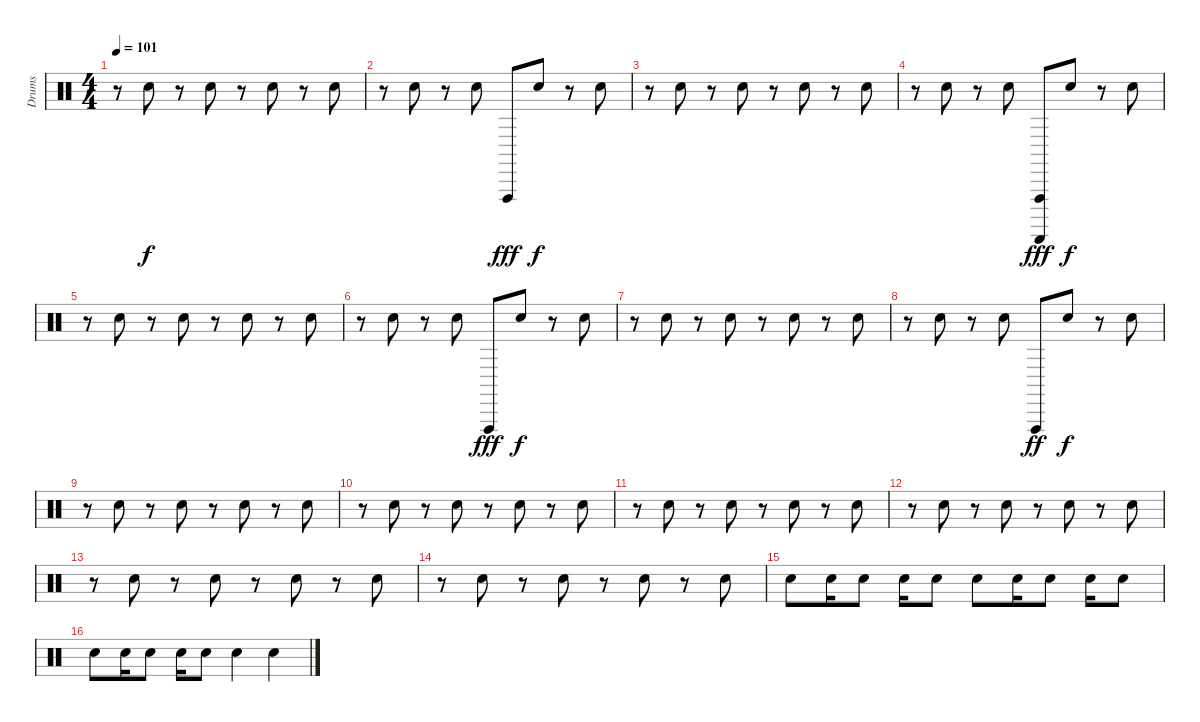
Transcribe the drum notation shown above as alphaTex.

\track ("Drums" "Drums") {instrument percussion}
\staff {score}
\articulation defaults
\ts (4 4)
\tempo 101
\clef neutral
\ks c
r.8{dy f} "Electric Snare (hit)".8 r.8 "Electric Snare (hit)".8 r.8 "Electric Snare (hit)".8 r.8 "Electric Snare (hit)".8 |
r.8 "Electric Snare (hit)".8 r.8 "Electric Snare (hit)".8 "Vibraslap (hit)".8{dy fff} "Electric Snare (hit)".8{dy f} r.8 "Electric Snare (hit)".8 |
r.8 "Electric Snare (hit)".8 r.8 "Electric Snare (hit)".8 r.8 "Electric Snare (hit)".8 r.8 "Electric Snare (hit)".8 |
r.8 "Electric Snare (hit)".8 r.8 "Electric Snare (hit)".8 ("Guiro (scrap-return)" "Vibraslap (hit)").8{dy fff} "Electric Snare (hit)".8{dy f} r.8 "Electric Snare (hit)".8 |
r.8 "Electric Snare (hit)".8 r.8 "Electric Snare (hit)".8 r.8 "Electric Snare (hit)".8 r.8 "Electric Snare (hit)".8 |
r.8 "Electric Snare (hit)".8 r.8 "Electric Snare (hit)".8 "Vibraslap (hit)".8{dy fff} "Electric Snare (hit)".8{dy f} r.8 "Electric Snare (hit)".8 |
r.8 "Electric Snare (hit)".8 r.8 "Electric Snare (hit)".8 r.8 "Electric Snare (hit)".8 r.8 "Electric Snare (hit)".8 |
r.8 "Electric Snare (hit)".8 r.8 "Electric Snare (hit)".8 "Vibraslap (hit)".8{dy ff} "Electric Snare (hit)".8{dy f} r.8 "Electric Snare (hit)".8 |
r.8 "Electric Snare (hit)".8 r.8 "Electric Snare (hit)".8 r.8 "Electric Snare (hit)".8 r.8 "Electric Snare (hit)".8 |
r.8 "Electric Snare (hit)".8 r.8 "Electric Snare (hit)".8 r.8 "Electric Snare (hit)".8 r.8 "Electric Snare (hit)".8 |
r.8 "Electric Snare (hit)".8 r.8 "Electric Snare (hit)".8 r.8 "Electric Snare (hit)".8 r.8 "Electric Snare (hit)".8 |
r.8 "Electric Snare (hit)".8 r.8 "Electric Snare (hit)".8 r.8 "Electric Snare (hit)".8 r.8 "Electric Snare (hit)".8 |
r.8 "Electric Snare (hit)".8 r.8 "Electric Snare (hit)".8 r.8 "Electric Snare (hit)".8 r.8 "Electric Snare (hit)".8 |
r.8 "Electric Snare (hit)".8 r.8 "Electric Snare (hit)".8 r.8 "Electric Snare (hit)".8 r.8 "Electric Snare (hit)".8 |
"Electric Snare (hit)".8 "Electric Snare (hit)".16 "Electric Snare (hit)".8 "Electric Snare (hit)".16 "Electric Snare (hit)".8 "Electric Snare (hit)".8 "Electric Snare (hit)".16 "Electric Snare (hit)".8 "Electric Snare (hit)".16 "Electric Snare (hit)".8 |
"Electric Snare (hit)".8 "Electric Snare (hit)".16 "Electric Snare (hit)".8 "Electric Snare (hit)".16 "Electric Snare (hit)".8 "Electric Snare (hit)".4 "Electric Snare (hit)".4
